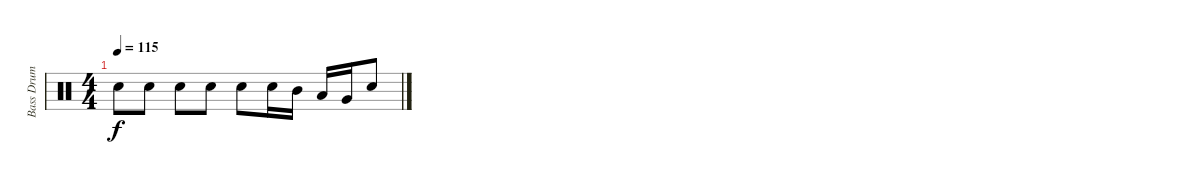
\track ("Bass Drum + Snare" "Bass Drum ") {instrument percussion}
\staff {score}
\articulation defaults
\ts (4 4)
\tempo 115
\clef neutral
\ks c "Snare (hit) 2".8{dy f} "Snare (hit) 2".8 "Snare (hit) 2".8 "Snare (hit) 2".8 "Snare (hit) 2".8 "Snare (hit) 2".16 "Mid Tom (hit)".16 "Low Tom (hit)".16 "Very Low Tom (hit)".16 "Snare (hit) 2".8
